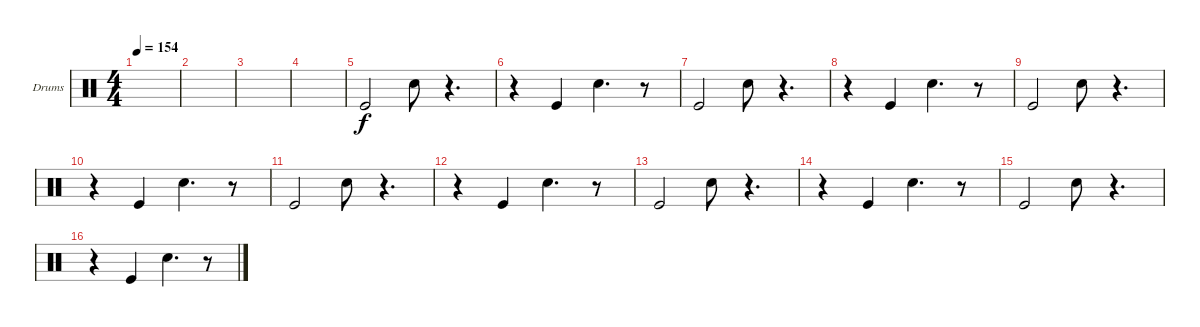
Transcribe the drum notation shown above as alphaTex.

\defaultSystemsLayout 4
\bracketExtendMode groupsimilarinstruments
\firstSystemTrackNameOrientation horizontal
\otherSystemsTrackNameOrientation horizontal
\track ("Drumkit" "Drums") {instrument percussion}
\staff {score}
\articulation defaults
\ts (4 4)
\tempo 154
\clef neutral
\ks c
|
|
|
|
"Kick (hit)".2 "Snare (hit) 2".8 r.4{d} |
r.4 "Kick (hit)".4 "Snare (hit) 2".4{d} r.8 |
"Kick (hit)".2 "Snare (hit) 2".8 r.4{d} |
r.4 "Kick (hit)".4 "Snare (hit) 2".4{d} r.8 |
"Kick (hit)".2 "Snare (hit) 2".8 r.4{d} |
r.4 "Kick (hit)".4 "Snare (hit) 2".4{d} r.8 |
"Kick (hit)".2 "Snare (hit) 2".8 r.4{d} |
r.4 "Kick (hit)".4 "Snare (hit) 2".4{d} r.8 |
"Kick (hit)".2 "Snare (hit) 2".8 r.4{d} |
r.4 "Kick (hit)".4 "Snare (hit) 2".4{d} r.8 |
"Kick (hit)".2 "Snare (hit) 2".8 r.4{d} |
r.4 "Kick (hit)".4 "Snare (hit) 2".4{d} r.8
